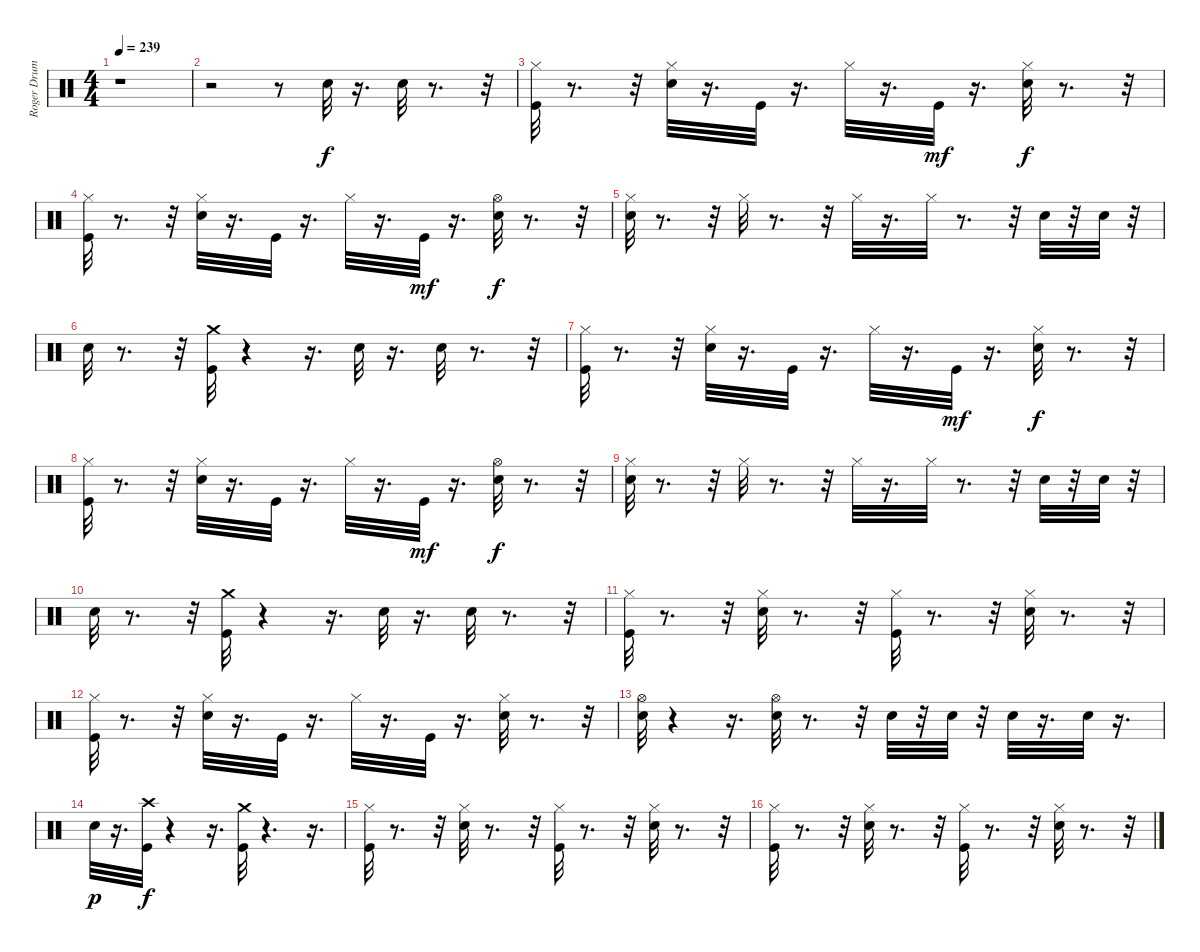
\track ("Roger Drums" "Roger Drum") {instrument percussion}
\staff {score}
\articulation defaults
\ts (4 4)
\tempo 239
\clef neutral
\ks c
r.1{dy f} |
r.2 r.8 "Electric Snare (hit)".32 r.16{d} "Electric Snare (hit)".32 r.8{d} r.32 |
("Hi-Hat (closed)" "Kick (hit)").32 r.8{d} r.32 ("Hi-Hat (closed)" "Electric Snare (hit)").32 r.16{d} "Kick (hit)".32 r.16{d} "Hi-Hat (closed)".32 r.16{d} "Kick (hit)".32{dy mf} r.16{d} ("Hi-Hat (closed)" "Electric Snare (hit)").32{dy f} r.8{d} r.32 |
("Hi-Hat (closed)" "Kick (hit)").32 r.8{d} r.32 ("Hi-Hat (closed)" "Electric Snare (hit)").32 r.16{d} "Kick (hit)".32 r.16{d} "Hi-Hat (closed)".32 r.16{d} "Kick (hit)".32{dy mf} r.16{d} ("Hi-Hat (open)" "Electric Snare (hit)").32{dy f} r.8{d} r.32 |
("Hi-Hat (closed)" "Electric Snare (hit)").32 r.8{d} r.32 "Hi-Hat (closed)".32 r.8{d} r.32 "Hi-Hat (closed)".32 r.16{d} "Hi-Hat (closed)".32 r.8{d} r.32 "Electric Snare (hit)".32 r.32 "Electric Snare (hit)".32 r.32 |
"Electric Snare (hit)".32 r.8{d} r.32 ("Kick (hit)" "Crash medium (hit)").32 r.4 r.16{d} "Electric Snare (hit)".32 r.16{d} "Electric Snare (hit)".32 r.8{d} r.32 |
("Hi-Hat (closed)" "Kick (hit)").32 r.8{d} r.32 ("Hi-Hat (closed)" "Electric Snare (hit)").32 r.16{d} "Kick (hit)".32 r.16{d} "Hi-Hat (closed)".32 r.16{d} "Kick (hit)".32{dy mf} r.16{d} ("Hi-Hat (closed)" "Electric Snare (hit)").32{dy f} r.8{d} r.32 |
("Hi-Hat (closed)" "Kick (hit)").32 r.8{d} r.32 ("Hi-Hat (closed)" "Electric Snare (hit)").32 r.16{d} "Kick (hit)".32 r.16{d} "Hi-Hat (closed)".32 r.16{d} "Kick (hit)".32{dy mf} r.16{d} ("Hi-Hat (open)" "Electric Snare (hit)").32{dy f} r.8{d} r.32 |
("Hi-Hat (closed)" "Electric Snare (hit)").32 r.8{d} r.32 "Hi-Hat (closed)".32 r.8{d} r.32 "Hi-Hat (closed)".32 r.16{d} "Hi-Hat (closed)".32 r.8{d} r.32 "Electric Snare (hit)".32 r.32 "Electric Snare (hit)".32 r.32 |
"Electric Snare (hit)".32 r.8{d} r.32 ("Kick (hit)" "Crash medium (hit)").32 r.4 r.16{d} "Electric Snare (hit)".32 r.16{d} "Electric Snare (hit)".32 r.8{d} r.32 |
("Hi-Hat (closed)" "Kick (hit)").32 r.8{d} r.32 ("Hi-Hat (closed)" "Electric Snare (hit)").32 r.8{d} r.32 ("Hi-Hat (closed)" "Kick (hit)").32 r.8{d} r.32 ("Hi-Hat (closed)" "Electric Snare (hit)").32 r.8{d} r.32 |
("Hi-Hat (closed)" "Kick (hit)").32 r.8{d} r.32 ("Hi-Hat (closed)" "Electric Snare (hit)").32 r.16{d} "Kick (hit)".32 r.16{d} "Hi-Hat (closed)".32 r.16{d} "Kick (hit)".32 r.16{d} ("Hi-Hat (closed)" "Electric Snare (hit)").32 r.8{d} r.32 |
("Electric Snare (hit)" "Hi-Hat (open)").32 r.4 r.16{d} ("Hi-Hat (open)" "Electric Snare (hit)").32 r.8{d} r.32 "Electric Snare (hit)".32 r.32 "Electric Snare (hit)".32 r.32 "Electric Snare (hit)".32 r.16{d} "Electric Snare (hit)".32 r.16{d} |
"Electric Snare (hit)".32{dy p} r.16{d} ("Kick (hit)" "Crash high (hit)").32{dy f} r.4 r.16{d} ("Kick (hit)" "Crash medium (hit)").32 r.4{d} r.16{d} |
("Hi-Hat (closed)" "Kick (hit)").32 r.8{d} r.32 ("Hi-Hat (closed)" "Electric Snare (hit)").32 r.8{d} r.32 ("Hi-Hat (closed)" "Kick (hit)").32 r.8{d} r.32 ("Hi-Hat (closed)" "Electric Snare (hit)").32 r.8{d} r.32 |
("Hi-Hat (closed)" "Kick (hit)").32 r.8{d} r.32 ("Hi-Hat (closed)" "Electric Snare (hit)").32 r.8{d} r.32 ("Hi-Hat (closed)" "Kick (hit)").32 r.8{d} r.32 ("Hi-Hat (closed)" "Electric Snare (hit)").32 r.8{d} r.32
